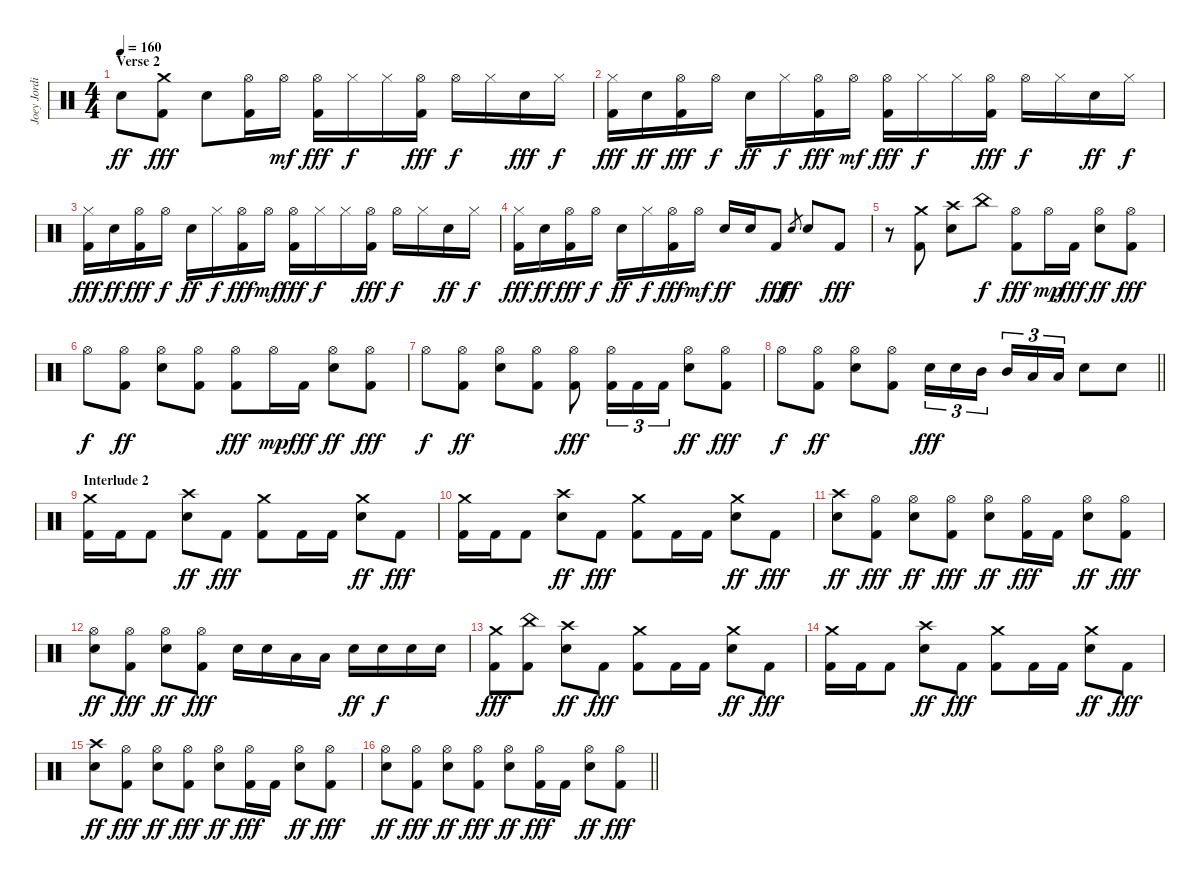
\track ("Joey Jordison" "Joey Jordi") {instrument percussion}
\staff {score}
\articulation defaults
\ts (4 4)
\section ("" "Verse 2")
\tempo 160
\clef neutral
\ks c "Electric Snare (hit)".8{dy ff}
("Crash medium (hit)" "Kick (hit) 2").8{dy fff} "Electric Snare (hit)".8 ("Hi-Hat (open)" "Kick (hit) 2").16 "Hi-Hat (open)".16{dy mf} ("Hi-Hat (open)" "Kick (hit) 2").16{dy fff} "Hi-Hat (closed)".16{dy f} "Hi-Hat (closed)".16 ("Hi-Hat (open)" "Kick (hit) 2").16{dy fff} "Hi-Hat (open)".16{dy f} "Hi-Hat (closed)".16 "Electric Snare (hit)".16{dy fff} "Hi-Hat (closed)".16{dy f} |
("Hi-Hat (closed)" "Kick (hit) 2").16{dy fff} "Electric Snare (hit)".16{dy ff} ("Hi-Hat (open)" "Kick (hit) 2").16{dy fff} "Hi-Hat (open)".16{dy f} "Electric Snare (hit)".16{dy ff} "Hi-Hat (closed)".16{dy f} ("Hi-Hat (open)" "Kick (hit) 2").16{dy fff} "Hi-Hat (open)".16{dy mf} ("Hi-Hat (open)" "Kick (hit) 2").16{dy fff} "Hi-Hat (closed)".16{dy f} "Hi-Hat (closed)".16 ("Hi-Hat (open)" "Kick (hit) 2").16{dy fff} "Hi-Hat (open)".16{dy f} "Hi-Hat (closed)".16 "Electric Snare (hit)".16{dy ff} "Hi-Hat (closed)".16{dy f} |
("Hi-Hat (closed)" "Kick (hit) 2").16{dy fff} "Electric Snare (hit)".16{dy ff} ("Hi-Hat (open)" "Kick (hit) 2").16{dy fff} "Hi-Hat (open)".16{dy f} "Electric Snare (hit)".16{dy ff} "Hi-Hat (closed)".16{dy f} ("Hi-Hat (open)" "Kick (hit) 2").16{dy fff} "Hi-Hat (open)".16{dy mf} ("Hi-Hat (open)" "Kick (hit) 2").16{dy fff} "Hi-Hat (closed)".16{dy f} "Hi-Hat (closed)".16 ("Hi-Hat (open)" "Kick (hit) 2").16{dy fff} "Hi-Hat (open)".16{dy f} "Hi-Hat (closed)".16 "Electric Snare (hit)".16{dy ff} "Hi-Hat (closed)".16{dy f} |
("Hi-Hat (closed)" "Kick (hit) 2").16{dy fff} "Electric Snare (hit)".16{dy ff} ("Hi-Hat (open)" "Kick (hit) 2").16{dy fff} "Hi-Hat (open)".16{dy f} "Electric Snare (hit)".16{dy ff} "Hi-Hat (closed)".16{dy f} ("Hi-Hat (open)" "Kick (hit) 2").16{dy fff} "Hi-Hat (open)".16{dy mf} "Electric Snare (hit)".16{dy ff} "Electric Snare (hit)".16 "Kick (hit) 2".8{dy fff} "Electric Snare (hit)".8{gr dy ff} "Electric Snare (hit)".8 "Kick (hit) 2".8{dy fff} |
r.8 ("Crash medium (hit)" "Kick (hit) 2").8 ("Crash high (hit)" "Electric Snare (hit)").8 "China (hit)".8{dy f} ("Hi-Hat (open)" "Kick (hit) 2").8{dy fff} "Hi-Hat (open)".16{dy mp} "Kick (hit) 2".16{dy fff} ("Hi-Hat (open)" "Electric Snare (hit)").8{dy ff} ("Hi-Hat (open)" "Kick (hit) 2").8{dy fff} |
"Hi-Hat (open)".8{dy f} ("Hi-Hat (open)" "Kick (hit) 2").8{dy ff} ("Hi-Hat (open)" "Electric Snare (hit)").8 ("Hi-Hat (open)" "Kick (hit) 2").8 ("Hi-Hat (open)" "Kick (hit) 2").8{dy fff} "Hi-Hat (open)".16{dy mp} "Kick (hit) 2".16{dy fff} ("Hi-Hat (open)" "Electric Snare (hit)").8{dy ff} ("Hi-Hat (open)" "Kick (hit) 2").8{dy fff} |
"Hi-Hat (open)".8{dy f} ("Hi-Hat (open)" "Kick (hit) 2").8{dy ff} ("Hi-Hat (open)" "Electric Snare (hit)").8 ("Hi-Hat (open)" "Kick (hit) 2").8 ("Hi-Hat (open)" "Kick (hit) 2").8{dy fff} ("Hi-Hat (open)" "Kick (hit) 2").16{tu (3 2)} "Kick (hit) 2".16{tu (3 2)} "Kick (hit) 2".16{tu (3 2)} ("Hi-Hat (open)" "Electric Snare (hit)").8{dy ff} ("Hi-Hat (open)" "Kick (hit) 2").8{dy fff} |
\barLineRight lightlight "Hi-Hat (open)".8{dy f}
("Hi-Hat (open)" "Kick (hit) 2").8{dy ff} ("Hi-Hat (open)" "Electric Snare (hit)").8 ("Hi-Hat (open)" "Kick (hit) 2").8 "Electric Snare (hit)".16{tu (3 2) dy fff} "Electric Snare (hit)".16{tu (3 2)} "Mid Tom (hit)".16{tu (3 2) beam splitsecondary} "Mid Tom (hit)".16{tu (3 2)} "Low Tom (hit)".16{tu (3 2)} "Low Tom (hit)".16{tu (3 2)} "Electric Snare (hit)".8 "Electric Snare (hit)".8 |
\section ("" "Interlude 2")
("Crash medium (hit)" "Kick (hit) 2").16 "Kick (hit) 2".16 "Kick (hit) 2".8 ("Crash high (hit)" "Electric Snare (hit)").8{dy ff} "Kick (hit) 2".8{dy fff} ("Crash medium (hit)" "Kick (hit) 2").8 "Kick (hit) 2".16 "Kick (hit) 2".16 ("Crash medium (hit)" "Electric Snare (hit)").8{dy ff} "Kick (hit) 2".8{dy fff} |
("Crash medium (hit)" "Kick (hit) 2").16 "Kick (hit) 2".16 "Kick (hit) 2".8 ("Crash high (hit)" "Electric Snare (hit)").8{dy ff} "Kick (hit) 2".8{dy fff} ("Crash medium (hit)" "Kick (hit) 2").8 "Kick (hit) 2".16 "Kick (hit) 2".16 ("Crash medium (hit)" "Electric Snare (hit)").8{dy ff} "Kick (hit) 2".8{dy fff} |
("Crash high (hit)" "Electric Snare (hit)").8{dy ff} ("Hi-Hat (open)" "Kick (hit) 2").8{dy fff} ("Hi-Hat (open)" "Electric Snare (hit)").8{dy ff} ("Hi-Hat (open)" "Kick (hit) 2").8{dy fff} ("Hi-Hat (open)" "Electric Snare (hit)").8{dy ff} ("Hi-Hat (open)" "Kick (hit) 2").16{dy fff} "Kick (hit) 2".16 ("Hi-Hat (open)" "Electric Snare (hit)").8{dy ff} ("Hi-Hat (open)" "Kick (hit) 2").8{dy fff} |
("Hi-Hat (open)" "Electric Snare (hit)").8{dy ff} ("Hi-Hat (open)" "Kick (hit) 2").8{dy fff} ("Hi-Hat (open)" "Electric Snare (hit)").8{dy ff} ("Hi-Hat (open)" "Kick (hit) 2").8{dy fff} "Electric Snare (hit)".16 "Electric Snare (hit)".16 "Low Tom (hit)".16 "Low Tom (hit)".16 "Electric Snare (hit)".16{dy ff} "Electric Snare (hit)".16{dy f} "Electric Snare (hit)".16 "Electric Snare (hit)".16 |
("Crash medium (hit)" "Kick (hit) 2").8{dy fff} ("China (hit)" "Kick (hit) 2").8 ("Crash high (hit)" "Electric Snare (hit)").8{dy ff} "Kick (hit) 2".8{dy fff} ("Crash medium (hit)" "Kick (hit) 2").8 "Kick (hit) 2".16 "Kick (hit) 2".16 ("Crash medium (hit)" "Electric Snare (hit)").8{dy ff} "Kick (hit) 2".8{dy fff} |
("Crash medium (hit)" "Kick (hit) 2").16 "Kick (hit) 2".16 "Kick (hit) 2".8 ("Crash high (hit)" "Electric Snare (hit)").8{dy ff} "Kick (hit) 2".8{dy fff} ("Crash medium (hit)" "Kick (hit) 2").8 "Kick (hit) 2".16 "Kick (hit) 2".16 ("Crash medium (hit)" "Electric Snare (hit)").8{dy ff} "Kick (hit) 2".8{dy fff} |
("Crash high (hit)" "Electric Snare (hit)").8{dy ff} ("Hi-Hat (open)" "Kick (hit) 2").8{dy fff} ("Hi-Hat (open)" "Electric Snare (hit)").8{dy ff} ("Hi-Hat (open)" "Kick (hit) 2").8{dy fff} ("Hi-Hat (open)" "Electric Snare (hit)").8{dy ff} ("Hi-Hat (open)" "Kick (hit) 2").16{dy fff} "Kick (hit) 2".16 ("Hi-Hat (open)" "Electric Snare (hit)").8{dy ff} ("Hi-Hat (open)" "Kick (hit) 2").8{dy fff} |
\barLineRight lightlight
("Hi-Hat (open)" "Electric Snare (hit)").8{dy ff} ("Hi-Hat (open)" "Kick (hit) 2").8{dy fff} ("Hi-Hat (open)" "Electric Snare (hit)").8{dy ff} ("Hi-Hat (open)" "Kick (hit) 2").8{dy fff} ("Hi-Hat (open)" "Electric Snare (hit)").8{dy ff} ("Hi-Hat (open)" "Kick (hit) 2").16{dy fff} "Kick (hit) 2".16 ("Hi-Hat (open)" "Electric Snare (hit)").8{dy ff} ("Hi-Hat (open)" "Kick (hit) 2").8{dy fff}
